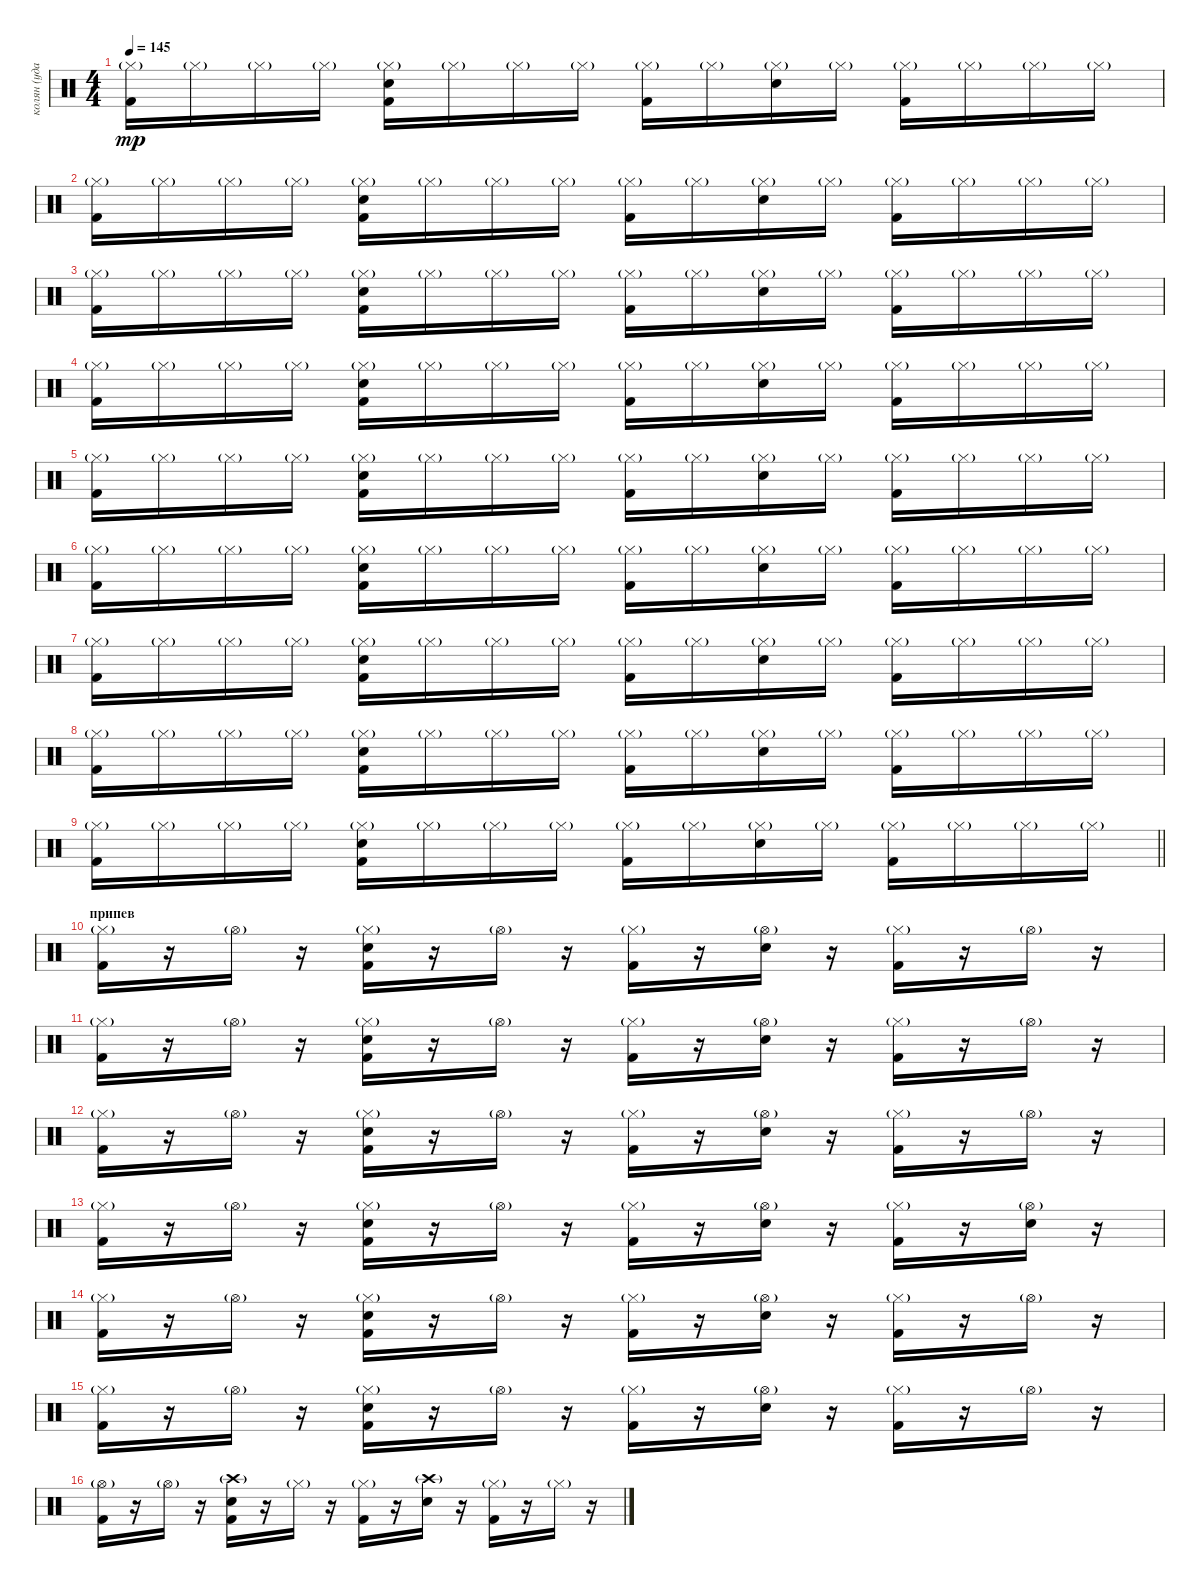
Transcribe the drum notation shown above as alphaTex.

\track ("колян (ударные)" "колян (уда") {instrument percussion}
\staff {score}
\articulation defaults
\ts (4 4)
\tempo 145
\clef neutral
\ks c
("Kick (hit) 2" "Hi-Hat (closed)"{g}).16{dy mp} "Hi-Hat (closed)"{g}.16 "Hi-Hat (closed)"{g}.16 "Hi-Hat (closed)"{g}.16 ("Snare (hit) 2" "Kick (hit) 2" "Hi-Hat (closed)"{g}).16 "Hi-Hat (closed)"{g}.16 "Hi-Hat (closed)"{g}.16 "Hi-Hat (closed)"{g}.16 ("Kick (hit) 2" "Hi-Hat (closed)"{g}).16 "Hi-Hat (closed)"{g}.16 ("Snare (hit) 2" "Hi-Hat (closed)"{g}).16 "Hi-Hat (closed)"{g}.16 ("Kick (hit) 2" "Hi-Hat (closed)"{g}).16 "Hi-Hat (closed)"{g}.16 "Hi-Hat (closed)"{g}.16 "Hi-Hat (closed)"{g}.16 |
("Kick (hit) 2" "Hi-Hat (closed)"{g}).16 "Hi-Hat (closed)"{g}.16 "Hi-Hat (closed)"{g}.16 "Hi-Hat (closed)"{g}.16 ("Snare (hit) 2" "Kick (hit) 2" "Hi-Hat (closed)"{g}).16 "Hi-Hat (closed)"{g}.16 "Hi-Hat (closed)"{g}.16 "Hi-Hat (closed)"{g}.16 ("Kick (hit) 2" "Hi-Hat (closed)"{g}).16 "Hi-Hat (closed)"{g}.16 ("Snare (hit) 2" "Hi-Hat (closed)"{g}).16 "Hi-Hat (closed)"{g}.16 ("Kick (hit) 2" "Hi-Hat (closed)"{g}).16 "Hi-Hat (closed)"{g}.16 "Hi-Hat (closed)"{g}.16 "Hi-Hat (closed)"{g}.16 |
("Kick (hit) 2" "Hi-Hat (closed)"{g}).16 "Hi-Hat (closed)"{g}.16 "Hi-Hat (closed)"{g}.16 "Hi-Hat (closed)"{g}.16 ("Snare (hit) 2" "Kick (hit) 2" "Hi-Hat (closed)"{g}).16 "Hi-Hat (closed)"{g}.16 "Hi-Hat (closed)"{g}.16 "Hi-Hat (closed)"{g}.16 ("Kick (hit) 2" "Hi-Hat (closed)"{g}).16 "Hi-Hat (closed)"{g}.16 ("Snare (hit) 2" "Hi-Hat (closed)"{g}).16 "Hi-Hat (closed)"{g}.16 ("Kick (hit) 2" "Hi-Hat (closed)"{g}).16 "Hi-Hat (closed)"{g}.16 "Hi-Hat (closed)"{g}.16 "Hi-Hat (closed)"{g}.16 |
("Kick (hit) 2" "Hi-Hat (closed)"{g}).16 "Hi-Hat (closed)"{g}.16 "Hi-Hat (closed)"{g}.16 "Hi-Hat (closed)"{g}.16 ("Snare (hit) 2" "Kick (hit) 2" "Hi-Hat (closed)"{g}).16 "Hi-Hat (closed)"{g}.16 "Hi-Hat (closed)"{g}.16 "Hi-Hat (closed)"{g}.16 ("Kick (hit) 2" "Hi-Hat (closed)"{g}).16 "Hi-Hat (closed)"{g}.16 ("Snare (hit) 2" "Hi-Hat (closed)"{g}).16 "Hi-Hat (closed)"{g}.16 ("Kick (hit) 2" "Hi-Hat (closed)"{g}).16 "Hi-Hat (closed)"{g}.16 "Hi-Hat (closed)"{g}.16 "Hi-Hat (closed)"{g}.16 |
("Kick (hit) 2" "Hi-Hat (closed)"{g}).16 "Hi-Hat (closed)"{g}.16 "Hi-Hat (closed)"{g}.16 "Hi-Hat (closed)"{g}.16 ("Snare (hit) 2" "Kick (hit) 2" "Hi-Hat (closed)"{g}).16 "Hi-Hat (closed)"{g}.16 "Hi-Hat (closed)"{g}.16 "Hi-Hat (closed)"{g}.16 ("Kick (hit) 2" "Hi-Hat (closed)"{g}).16 "Hi-Hat (closed)"{g}.16 ("Snare (hit) 2" "Hi-Hat (closed)"{g}).16 "Hi-Hat (closed)"{g}.16 ("Kick (hit) 2" "Hi-Hat (closed)"{g}).16 "Hi-Hat (closed)"{g}.16 "Hi-Hat (closed)"{g}.16 "Hi-Hat (closed)"{g}.16 |
("Kick (hit) 2" "Hi-Hat (closed)"{g}).16 "Hi-Hat (closed)"{g}.16 "Hi-Hat (closed)"{g}.16 "Hi-Hat (closed)"{g}.16 ("Snare (hit) 2" "Kick (hit) 2" "Hi-Hat (closed)"{g}).16 "Hi-Hat (closed)"{g}.16 "Hi-Hat (closed)"{g}.16 "Hi-Hat (closed)"{g}.16 ("Kick (hit) 2" "Hi-Hat (closed)"{g}).16 "Hi-Hat (closed)"{g}.16 ("Snare (hit) 2" "Hi-Hat (closed)"{g}).16 "Hi-Hat (closed)"{g}.16 ("Kick (hit) 2" "Hi-Hat (closed)"{g}).16 "Hi-Hat (closed)"{g}.16 "Hi-Hat (closed)"{g}.16 "Hi-Hat (closed)"{g}.16 |
("Kick (hit) 2" "Hi-Hat (closed)"{g}).16 "Hi-Hat (closed)"{g}.16 "Hi-Hat (closed)"{g}.16 "Hi-Hat (closed)"{g}.16 ("Snare (hit) 2" "Kick (hit) 2" "Hi-Hat (closed)"{g}).16 "Hi-Hat (closed)"{g}.16 "Hi-Hat (closed)"{g}.16 "Hi-Hat (closed)"{g}.16 ("Kick (hit) 2" "Hi-Hat (closed)"{g}).16 "Hi-Hat (closed)"{g}.16 ("Snare (hit) 2" "Hi-Hat (closed)"{g}).16 "Hi-Hat (closed)"{g}.16 ("Kick (hit) 2" "Hi-Hat (closed)"{g}).16 "Hi-Hat (closed)"{g}.16 "Hi-Hat (closed)"{g}.16 "Hi-Hat (closed)"{g}.16 |
("Kick (hit) 2" "Hi-Hat (closed)"{g}).16 "Hi-Hat (closed)"{g}.16 "Hi-Hat (closed)"{g}.16 "Hi-Hat (closed)"{g}.16 ("Snare (hit) 2" "Kick (hit) 2" "Hi-Hat (closed)"{g}).16 "Hi-Hat (closed)"{g}.16 "Hi-Hat (closed)"{g}.16 "Hi-Hat (closed)"{g}.16 ("Kick (hit) 2" "Hi-Hat (closed)"{g}).16 "Hi-Hat (closed)"{g}.16 ("Snare (hit) 2" "Hi-Hat (closed)"{g}).16 "Hi-Hat (closed)"{g}.16 ("Kick (hit) 2" "Hi-Hat (closed)"{g}).16 "Hi-Hat (closed)"{g}.16 "Hi-Hat (closed)"{g}.16 "Hi-Hat (closed)"{g}.16 |
\barLineRight lightlight
("Kick (hit) 2" "Hi-Hat (closed)"{g}).16 "Hi-Hat (closed)"{g}.16 "Hi-Hat (closed)"{g}.16 "Hi-Hat (closed)"{g}.16 ("Snare (hit) 2" "Kick (hit) 2" "Hi-Hat (closed)"{g}).16 "Hi-Hat (closed)"{g}.16 "Hi-Hat (closed)"{g}.16 "Hi-Hat (closed)"{g}.16 ("Kick (hit) 2" "Hi-Hat (closed)"{g}).16 "Hi-Hat (closed)"{g}.16 ("Snare (hit) 2" "Hi-Hat (closed)"{g}).16 "Hi-Hat (closed)"{g}.16 ("Kick (hit) 2" "Hi-Hat (closed)"{g}).16 "Hi-Hat (closed)"{g}.16 "Hi-Hat (closed)"{g}.16 "Hi-Hat (closed)"{g}.16 |
\section ("" "припев")
("Kick (hit) 2" "Hi-Hat (closed)"{g}).16 r.16 "Hi-Hat (open)"{g}.16 r.16 ("Snare (hit) 2" "Kick (hit) 2" "Hi-Hat (closed)"{g}).16 r.16 "Hi-Hat (open)"{g}.16 r.16 ("Kick (hit) 2" "Hi-Hat (closed)"{g}).16 r.16 ("Snare (hit) 2" "Hi-Hat (open)"{g}).16 r.16 ("Kick (hit) 2" "Hi-Hat (closed)"{g}).16 r.16 "Hi-Hat (open)"{g}.16 r.16 |
("Kick (hit) 2" "Hi-Hat (closed)"{g}).16 r.16 "Hi-Hat (open)"{g}.16 r.16 ("Snare (hit) 2" "Kick (hit) 2" "Hi-Hat (closed)"{g}).16 r.16 "Hi-Hat (open)"{g}.16 r.16 ("Kick (hit) 2" "Hi-Hat (closed)"{g}).16 r.16 ("Snare (hit) 2" "Hi-Hat (open)"{g}).16 r.16 ("Kick (hit) 2" "Hi-Hat (closed)"{g}).16 r.16 "Hi-Hat (open)"{g}.16 r.16 |
("Kick (hit) 2" "Hi-Hat (closed)"{g}).16 r.16 "Hi-Hat (open)"{g}.16 r.16 ("Snare (hit) 2" "Kick (hit) 2" "Hi-Hat (closed)"{g}).16 r.16 "Hi-Hat (open)"{g}.16 r.16 ("Kick (hit) 2" "Hi-Hat (closed)"{g}).16 r.16 ("Snare (hit) 2" "Hi-Hat (open)"{g}).16 r.16 ("Kick (hit) 2" "Hi-Hat (closed)"{g}).16 r.16 "Hi-Hat (open)"{g}.16 r.16 |
("Kick (hit) 2" "Hi-Hat (closed)"{g}).16 r.16 "Hi-Hat (open)"{g}.16 r.16 ("Snare (hit) 2" "Kick (hit) 2" "Hi-Hat (closed)"{g}).16 r.16 "Hi-Hat (open)"{g}.16 r.16 ("Kick (hit) 2" "Hi-Hat (closed)"{g}).16 r.16 ("Snare (hit) 2" "Hi-Hat (open)"{g}).16 r.16 ("Kick (hit) 2" "Hi-Hat (closed)"{g}).16 r.16 ("Snare (hit) 2" "Hi-Hat (open)"{g}).16 r.16 |
("Kick (hit) 2" "Hi-Hat (closed)"{g}).16 r.16 "Hi-Hat (open)"{g}.16 r.16 ("Snare (hit) 2" "Kick (hit) 2" "Hi-Hat (closed)"{g}).16 r.16 "Hi-Hat (open)"{g}.16 r.16 ("Kick (hit) 2" "Hi-Hat (closed)"{g}).16 r.16 ("Snare (hit) 2" "Hi-Hat (open)"{g}).16 r.16 ("Kick (hit) 2" "Hi-Hat (closed)"{g}).16 r.16 "Hi-Hat (open)"{g}.16 r.16 |
("Kick (hit) 2" "Hi-Hat (closed)"{g}).16 r.16 "Hi-Hat (open)"{g}.16 r.16 ("Snare (hit) 2" "Kick (hit) 2" "Hi-Hat (closed)"{g}).16 r.16 "Hi-Hat (open)"{g}.16 r.16 ("Kick (hit) 2" "Hi-Hat (closed)"{g}).16 r.16 ("Snare (hit) 2" "Hi-Hat (open)"{g}).16 r.16 ("Kick (hit) 2" "Hi-Hat (closed)"{g}).16 r.16 "Hi-Hat (open)"{g}.16 r.16 |
("Kick (hit) 2" "Hi-Hat (open)"{g}).16 r.16 "Hi-Hat (open)"{g}.16 r.16 ("Snare (hit) 2" "Kick (hit) 2" "Crash high (hit)"{g}).16 r.16 "Hi-Hat (closed)"{g}.16 r.16 ("Kick (hit) 2" "Hi-Hat (closed)"{g}).16 r.16 ("Snare (hit) 2" "Crash high (hit)"{g}).16 r.16 ("Kick (hit) 2" "Hi-Hat (closed)"{g}).16 r.16 "Hi-Hat (closed)"{g}.16 r.16
